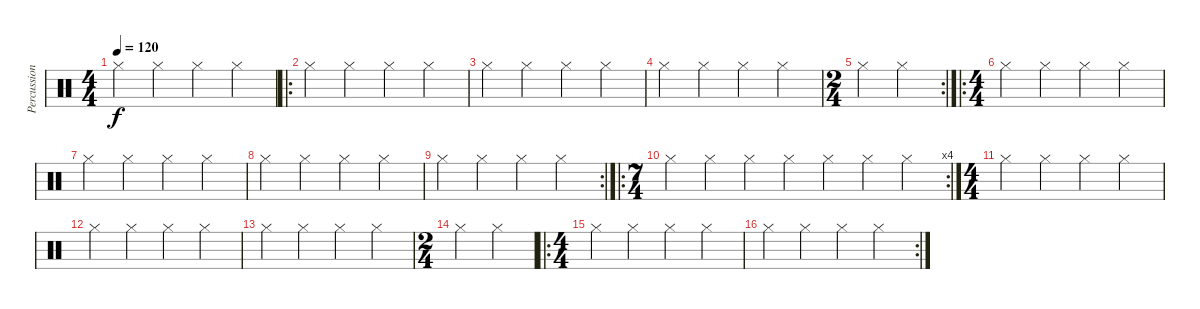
\track ("Percussioni" "Percussion") {instrument percussion}
\staff {score}
\articulation defaults
\ts (4 4)
\tempo 120
\clef neutral
\ks c "Hi-Hat (closed)".4{dy f} "Hi-Hat (closed)".4 "Hi-Hat (closed)".4 "Hi-Hat (closed)".4
|
\ro "Hi-Hat (closed)".4 "Hi-Hat (closed)".4 "Hi-Hat (closed)".4 "Hi-Hat (closed)".4
|
"Hi-Hat (closed)".4 "Hi-Hat (closed)".4 "Hi-Hat (closed)".4 "Hi-Hat (closed)".4 |
"Hi-Hat (closed)".4 "Hi-Hat (closed)".4 "Hi-Hat (closed)".4 "Hi-Hat (closed)".4 |
\rc 2
\ts (2 4)
"Hi-Hat (closed)".4 "Hi-Hat (closed)".4 |
\ro
\ts (4 4)
"Hi-Hat (closed)".4 "Hi-Hat (closed)".4 "Hi-Hat (closed)".4 "Hi-Hat (closed)".4 |
"Hi-Hat (closed)".4 "Hi-Hat (closed)".4 "Hi-Hat (closed)".4 "Hi-Hat (closed)".4 |
"Hi-Hat (closed)".4 "Hi-Hat (closed)".4 "Hi-Hat (closed)".4 "Hi-Hat (closed)".4 |
\rc 2 "Hi-Hat (closed)".4 "Hi-Hat (closed)".4 "Hi-Hat (closed)".4 "Hi-Hat (closed)".4
|
\ro
\rc 4
\ts (7 4)
"Hi-Hat (closed)".4 "Hi-Hat (closed)".4 "Hi-Hat (closed)".4 "Hi-Hat (closed)".4 "Hi-Hat (closed)".4 "Hi-Hat (closed)".4 "Hi-Hat (closed)".4 |
\ts (4 4)
"Hi-Hat (closed)".4 "Hi-Hat (closed)".4 "Hi-Hat (closed)".4 "Hi-Hat (closed)".4 |
"Hi-Hat (closed)".4 "Hi-Hat (closed)".4 "Hi-Hat (closed)".4 "Hi-Hat (closed)".4 |
"Hi-Hat (closed)".4 "Hi-Hat (closed)".4 "Hi-Hat (closed)".4 "Hi-Hat (closed)".4 |
\ts (2 4)
"Hi-Hat (closed)".4 "Hi-Hat (closed)".4 |
\ro
\ts (4 4)
"Hi-Hat (closed)".4 "Hi-Hat (closed)".4 "Hi-Hat (closed)".4 "Hi-Hat (closed)".4 |
\rc 2 "Hi-Hat (closed)".4 "Hi-Hat (closed)".4 "Hi-Hat (closed)".4 "Hi-Hat (closed)".4
